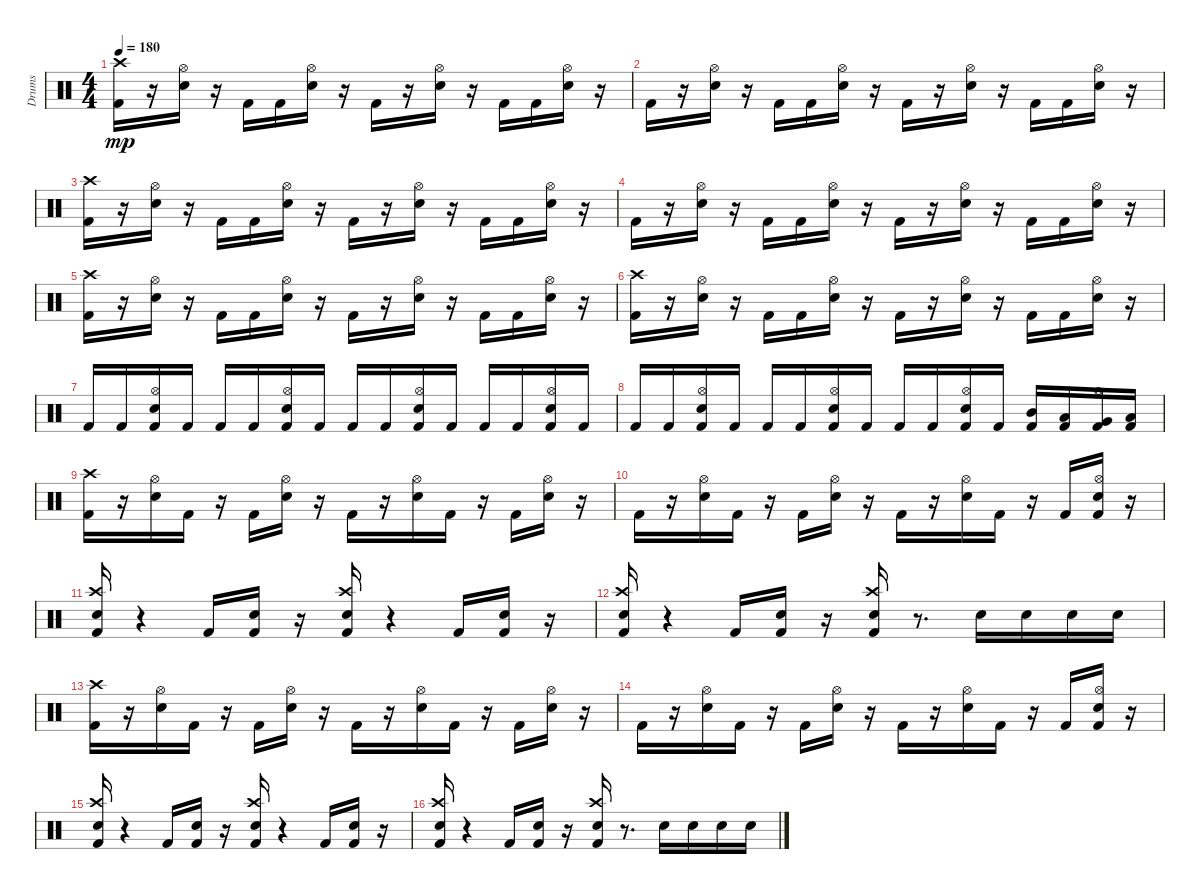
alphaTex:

\track ("Drums" "Drums") {instrument percussion}
\staff {score}
\articulation defaults
\ts (4 4)
\tempo 180
\clef neutral
\ks c
("Kick (hit) 2" "Crash high (hit)").16{dy mp} r.16 ("Hi-Hat (open)" "Electric Snare (hit)").16 r.16 "Kick (hit) 2".16 "Kick (hit) 2".16 ("Hi-Hat (open)" "Electric Snare (hit)").16 r.16 "Kick (hit) 2".16 r.16 ("Hi-Hat (open)" "Electric Snare (hit)").16 r.16 "Kick (hit) 2".16 "Kick (hit) 2".16 ("Electric Snare (hit)" "Hi-Hat (open)").16 r.16 |
"Kick (hit) 2".16 r.16 ("Hi-Hat (open)" "Electric Snare (hit)").16 r.16 "Kick (hit) 2".16 "Kick (hit) 2".16 ("Electric Snare (hit)" "Hi-Hat (open)").16 r.16 "Kick (hit) 2".16 r.16 ("Hi-Hat (open)" "Electric Snare (hit)").16 r.16 "Kick (hit) 2".16 "Kick (hit) 2".16 ("Electric Snare (hit)" "Hi-Hat (open)").16 r.16 |
("Kick (hit) 2" "Crash high (hit)").16 r.16 ("Hi-Hat (open)" "Electric Snare (hit)").16 r.16 "Kick (hit) 2".16 "Kick (hit) 2".16 ("Electric Snare (hit)" "Hi-Hat (open)").16 r.16 "Kick (hit) 2".16 r.16 ("Electric Snare (hit)" "Hi-Hat (open)").16 r.16 "Kick (hit) 2".16 "Kick (hit) 2".16 ("Electric Snare (hit)" "Hi-Hat (open)").16 r.16 |
"Kick (hit) 2".16 r.16 ("Electric Snare (hit)" "Hi-Hat (open)").16 r.16 "Kick (hit) 2".16 "Kick (hit) 2".16 ("Electric Snare (hit)" "Hi-Hat (open)").16 r.16 "Kick (hit) 2".16 r.16 ("Electric Snare (hit)" "Hi-Hat (open)").16 r.16 "Kick (hit) 2".16 "Kick (hit) 2".16 ("Electric Snare (hit)" "Hi-Hat (open)").16 r.16 |
("Crash high (hit)" "Kick (hit) 2").16 r.16 ("Hi-Hat (open)" "Electric Snare (hit)").16 r.16 "Kick (hit) 2".16 "Kick (hit) 2".16 ("Electric Snare (hit)" "Hi-Hat (open)").16 r.16 "Kick (hit) 2".16 r.16 ("Electric Snare (hit)" "Hi-Hat (open)").16 r.16 "Kick (hit) 2".16 "Kick (hit) 2".16 ("Electric Snare (hit)" "Hi-Hat (open)").16 r.16 |
("Crash high (hit)" "Kick (hit) 2").16 r.16 ("Hi-Hat (open)" "Electric Snare (hit)").16 r.16 "Kick (hit) 2".16 "Kick (hit) 2".16 ("Electric Snare (hit)" "Hi-Hat (open)").16 r.16 "Kick (hit) 2".16 r.16 ("Electric Snare (hit)" "Hi-Hat (open)").16 r.16 "Kick (hit) 2".16 "Kick (hit) 2".16 ("Electric Snare (hit)" "Hi-Hat (open)").16 r.16 |
"Kick (hit) 2".16 "Kick (hit) 2".16 ("Electric Snare (hit)" "Hi-Hat (open)" "Kick (hit) 2").16 "Kick (hit) 2".16 "Kick (hit) 2".16 "Kick (hit) 2".16 ("Electric Snare (hit)" "Hi-Hat (open)" "Kick (hit) 2").16 "Kick (hit) 2".16 "Kick (hit) 2".16 "Kick (hit) 2".16 ("Kick (hit) 2" "Hi-Hat (open)" "Electric Snare (hit)").16 "Kick (hit) 2".16 "Kick (hit) 2".16 "Kick (hit) 2".16 ("Electric Snare (hit)" "Hi-Hat (open)" "Kick (hit) 2").16 "Kick (hit) 2".16 |
"Kick (hit) 2".16 "Kick (hit) 2".16 ("Hi-Hat (open)" "Kick (hit) 2" "Electric Snare (hit)").16 "Kick (hit) 2".16 "Kick (hit) 2".16 "Kick (hit) 2".16 ("Electric Snare (hit)" "Kick (hit) 2" "Hi-Hat (open)").16 "Kick (hit) 2".16 "Kick (hit) 2".16 "Kick (hit) 2".16 ("Electric Snare (hit)" "Hi-Hat (open)" "Kick (hit) 2").16 "Kick (hit) 2".16 ("Kick (hit) 2" "Mid Tom (hit)").16 ("Low Tom (hit)" "Kick (hit) 2").16 ("Kick (hit) 2" "Hi-Hat (open)" "Very Low Tom (hit)").16 ("Kick (hit) 2" "Low Floor Tom (hit)").16 |
("Kick (hit) 2" "Crash high (hit)").16 r.16 ("Electric Snare (hit)" "Hi-Hat (open)").16 "Kick (hit) 2".16 r.16 "Kick (hit) 2".16 ("Electric Snare (hit)" "Hi-Hat (open)").16 r.16 "Kick (hit) 2".16 r.16 ("Hi-Hat (open)" "Electric Snare (hit)").16 "Kick (hit) 2".16 r.16 "Kick (hit) 2".16 ("Hi-Hat (open)" "Electric Snare (hit)").16 r.16 |
"Kick (hit) 2".16 r.16 ("Hi-Hat (open)" "Electric Snare (hit)").16 "Kick (hit) 2".16 r.16 "Kick (hit) 2".16 ("Electric Snare (hit)" "Hi-Hat (open)").16 r.16 "Kick (hit) 2".16 r.16 ("Electric Snare (hit)" "Hi-Hat (open)").16 "Kick (hit) 2".16 r.16 "Kick (hit) 2".16 ("Hi-Hat (open)" "Kick (hit) 2" "Electric Snare (hit)").16 r.16 |
("Crash high (hit)" "Kick (hit) 2" "Electric Snare (hit)").16 r.4 "Kick (hit) 2".16 ("Electric Snare (hit)" "Kick (hit) 2").16 r.16 ("Kick (hit) 2" "Crash high (hit)" "Electric Snare (hit)").16 r.4 "Kick (hit) 2".16 ("Kick (hit) 2" "Electric Snare (hit)").16 r.16 |
("Kick (hit) 2" "Crash high (hit)" "Electric Snare (hit)").16 r.4 "Kick (hit) 2".16 ("Kick (hit) 2" "Electric Snare (hit)").16 r.16 ("Kick (hit) 2" "Electric Snare (hit)" "Crash high (hit)").16 r.8{d} "Electric Snare (hit)".16 "Electric Snare (hit)".16 "Electric Snare (hit)".16 "Electric Snare (hit)".16 |
("Crash high (hit)" "Kick (hit) 2").16 r.16 ("Electric Snare (hit)" "Hi-Hat (open)").16 "Kick (hit) 2".16 r.16 "Kick (hit) 2".16 ("Electric Snare (hit)" "Hi-Hat (open)").16 r.16 "Kick (hit) 2".16 r.16 ("Electric Snare (hit)" "Hi-Hat (open)").16 "Kick (hit) 2".16 r.16 "Kick (hit) 2".16 ("Electric Snare (hit)" "Hi-Hat (open)").16 r.16 |
"Kick (hit) 2".16 r.16 ("Electric Snare (hit)" "Hi-Hat (open)").16 "Kick (hit) 2".16 r.16 "Kick (hit) 2".16 ("Hi-Hat (open)" "Electric Snare (hit)").16 r.16 "Kick (hit) 2".16 r.16 ("Hi-Hat (open)" "Electric Snare (hit)").16 "Kick (hit) 2".16 r.16 "Kick (hit) 2".16 ("Hi-Hat (open)" "Electric Snare (hit)" "Kick (hit) 2").16 r.16 |
("Kick (hit) 2" "Crash high (hit)" "Electric Snare (hit)").16 r.4 "Kick (hit) 2".16 ("Kick (hit) 2" "Electric Snare (hit)").16 r.16 ("Electric Snare (hit)" "Kick (hit) 2" "Crash high (hit)").16 r.4 "Kick (hit) 2".16 ("Kick (hit) 2" "Electric Snare (hit)").16 r.16 |
("Crash high (hit)" "Electric Snare (hit)" "Kick (hit) 2").16 r.4 "Kick (hit) 2".16 ("Electric Snare (hit)" "Kick (hit) 2").16 r.16 ("Crash high (hit)" "Kick (hit) 2" "Electric Snare (hit)").16 r.8{d} "Electric Snare (hit)".16 "Electric Snare (hit)".16 "Electric Snare (hit)".16 "Electric Snare (hit)".16
